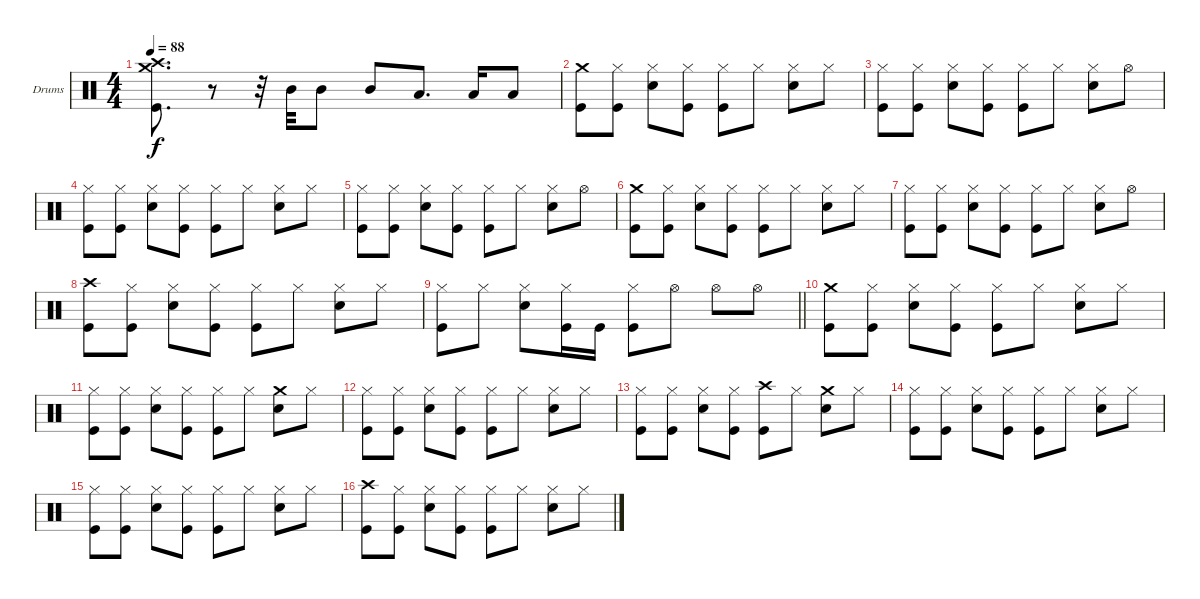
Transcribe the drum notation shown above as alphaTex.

\bracketExtendMode groupsimilarinstruments
\firstSystemTrackNameOrientation horizontal
\otherSystemsTrackNameOrientation horizontal
\track ("Drumkit" "Drums") {instrument percussion}
\staff {score}
\articulation defaults
\ts (4 4)
\tempo 88
\clef neutral
\ks c
("Kick (hit)" "Crash high (hit)" "Crash medium (hit)").8{d dy f} r.8 r.32 "Mid Tom (hit)".32 "Mid Tom (hit)".8 "Mid Tom (hit)".8 "Low Tom (hit)".8{d} "Low Tom (hit)".16 "Low Tom (hit)".8 |
("Kick (hit)" "Crash medium (hit)").8 ("Kick (hit)" "Hi-Hat (closed)").8 ("Snare (hit) 2" "Hi-Hat (closed)").8 ("Kick (hit)" "Hi-Hat (closed)").8 ("Kick (hit)" "Hi-Hat (closed)").8 "Hi-Hat (closed)".8 ("Snare (hit) 2" "Hi-Hat (closed)").8 "Hi-Hat (closed)".8 |
("Kick (hit)" "Hi-Hat (closed)").8 ("Kick (hit)" "Hi-Hat (closed)").8 ("Snare (hit) 2" "Hi-Hat (closed)").8 ("Kick (hit)" "Hi-Hat (closed)").8 ("Kick (hit)" "Hi-Hat (closed)").8 "Hi-Hat (closed)".8 ("Snare (hit) 2" "Hi-Hat (closed)").8 "Hi-Hat (open)".8 |
("Kick (hit)" "Hi-Hat (closed)").8 ("Kick (hit)" "Hi-Hat (closed)").8 ("Snare (hit) 2" "Hi-Hat (closed)").8 ("Kick (hit)" "Hi-Hat (closed)").8 ("Kick (hit)" "Hi-Hat (closed)").8 "Hi-Hat (closed)".8 ("Snare (hit) 2" "Hi-Hat (closed)").8 "Hi-Hat (closed)".8 |
("Kick (hit)" "Hi-Hat (closed)").8 ("Kick (hit)" "Hi-Hat (closed)").8 ("Snare (hit) 2" "Hi-Hat (closed)").8 ("Kick (hit)" "Hi-Hat (closed)").8 ("Kick (hit)" "Hi-Hat (closed)").8 "Hi-Hat (closed)".8 ("Snare (hit) 2" "Hi-Hat (closed)").8 "Hi-Hat (open)".8 |
("Kick (hit)" "Crash medium (hit)").8 ("Kick (hit)" "Hi-Hat (closed)").8 ("Snare (hit) 2" "Hi-Hat (closed)").8 ("Kick (hit)" "Hi-Hat (closed)").8 ("Kick (hit)" "Hi-Hat (closed)").8 "Hi-Hat (closed)".8 ("Snare (hit) 2" "Hi-Hat (closed)").8 "Hi-Hat (closed)".8 |
("Kick (hit)" "Hi-Hat (closed)").8 ("Kick (hit)" "Hi-Hat (closed)").8 ("Snare (hit) 2" "Hi-Hat (closed)").8 ("Kick (hit)" "Hi-Hat (closed)").8 ("Kick (hit)" "Hi-Hat (closed)").8 "Hi-Hat (closed)".8 ("Snare (hit) 2" "Hi-Hat (closed)").8 "Hi-Hat (open)".8 |
("Kick (hit)" "Crash high (hit)").8 ("Kick (hit)" "Hi-Hat (closed)").8 ("Snare (hit) 2" "Hi-Hat (closed)").8 ("Kick (hit)" "Hi-Hat (closed)").8 ("Kick (hit)" "Hi-Hat (closed)").8 "Hi-Hat (closed)".8 ("Snare (hit) 2" "Hi-Hat (closed)").8 "Hi-Hat (closed)".8 |
\barLineRight lightlight
("Kick (hit)" "Hi-Hat (closed)").8 "Hi-Hat (closed)".8 ("Snare (hit) 2" "Hi-Hat (closed)").8 ("Kick (hit)" "Hi-Hat (closed)").16 "Kick (hit)".16 ("Kick (hit)" "Hi-Hat (closed)").8 "Hi-Hat (open)".8 "Hi-Hat (open)".8 "Hi-Hat (open)".8 |
("Kick (hit)" "Crash medium (hit)").8 ("Kick (hit)" "Hi-Hat (closed)").8 ("Snare (hit) 2" "Hi-Hat (closed)").8 ("Kick (hit)" "Hi-Hat (closed)").8 ("Kick (hit)" "Hi-Hat (closed)").8 "Hi-Hat (closed)".8 ("Snare (hit) 2" "Hi-Hat (closed)").8 "Hi-Hat (closed)".8 |
("Kick (hit)" "Hi-Hat (closed)").8 ("Kick (hit)" "Hi-Hat (closed)").8 ("Snare (hit) 2" "Hi-Hat (closed)").8 ("Kick (hit)" "Hi-Hat (closed)").8 ("Kick (hit)" "Hi-Hat (closed)").8 "Hi-Hat (closed)".8 ("Snare (hit) 2" "Crash medium (hit)").8 "Hi-Hat (closed)".8 |
("Kick (hit)" "Hi-Hat (closed)").8 ("Kick (hit)" "Hi-Hat (closed)").8 ("Snare (hit) 2" "Hi-Hat (closed)").8 ("Kick (hit)" "Hi-Hat (closed)").8 ("Kick (hit)" "Hi-Hat (closed)").8 "Hi-Hat (closed)".8 ("Snare (hit) 2" "Hi-Hat (closed)").8 "Hi-Hat (closed)".8 |
("Kick (hit)" "Hi-Hat (closed)").8 ("Kick (hit)" "Hi-Hat (closed)").8 ("Snare (hit) 2" "Hi-Hat (closed)").8 ("Kick (hit)" "Hi-Hat (closed)").8 ("Kick (hit)" "Crash high (hit)").8 "Hi-Hat (closed)".8 ("Snare (hit) 2" "Crash medium (hit)").8 "Hi-Hat (closed)".8 |
("Kick (hit)" "Hi-Hat (closed)").8 ("Kick (hit)" "Hi-Hat (closed)").8 ("Snare (hit) 2" "Hi-Hat (closed)").8 ("Kick (hit)" "Hi-Hat (closed)").8 ("Kick (hit)" "Hi-Hat (closed)").8 "Hi-Hat (closed)".8 ("Snare (hit) 2" "Hi-Hat (closed)").8 "Hi-Hat (closed)".8 |
("Kick (hit)" "Hi-Hat (closed)").8 ("Kick (hit)" "Hi-Hat (closed)").8 ("Snare (hit) 2" "Hi-Hat (closed)").8 ("Kick (hit)" "Hi-Hat (closed)").8 ("Kick (hit)" "Hi-Hat (closed)").8 "Hi-Hat (closed)".8 ("Snare (hit) 2" "Hi-Hat (closed)").8 "Hi-Hat (closed)".8 |
("Kick (hit)" "Crash high (hit)").8 ("Kick (hit)" "Hi-Hat (closed)").8 ("Snare (hit) 2" "Hi-Hat (closed)").8 ("Kick (hit)" "Hi-Hat (closed)").8 ("Kick (hit)" "Hi-Hat (closed)").8 "Hi-Hat (closed)".8 ("Snare (hit) 2" "Hi-Hat (closed)").8 "Hi-Hat (closed)".8
